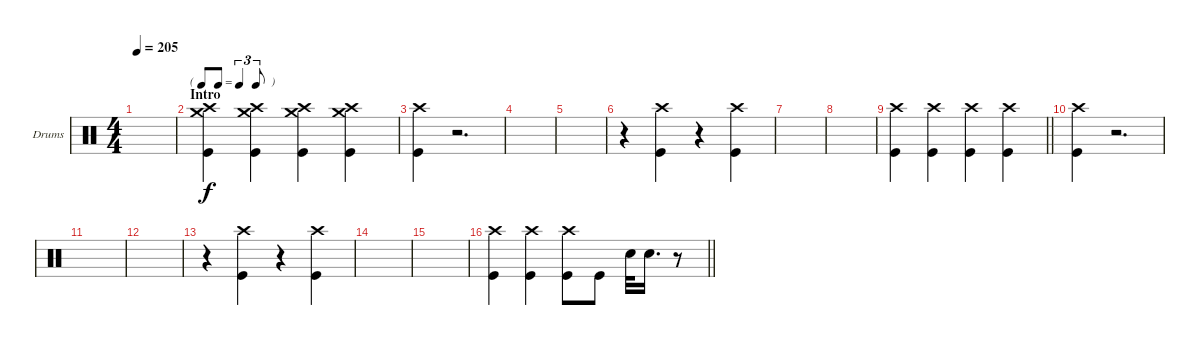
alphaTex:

\bracketExtendMode groupsimilarinstruments
\firstSystemTrackNameOrientation horizontal
\otherSystemsTrackNameOrientation horizontal
\track ("Drums" "Drums") {instrument percussion}
\staff {score}
\articulation defaults
\ts (4 4)
\beaming (8 2 2 2 2)
\tempo 205
\clef neutral
\ks c
|
\tf triplet8th
\section ("" "Intro")
("Crash medium (hit)" "Crash high (hit)" "Kick (hit)").4 ("Crash medium (hit)" "Crash high (hit)" "Kick (hit)").4 ("Crash medium (hit)" "Crash high (hit)" "Kick (hit)").4 ("Crash medium (hit)" "Crash high (hit)" "Kick (hit)").4 |
("Kick (hit)" "Crash high (hit)").4 r.2{d} |
|
|
r.4 ("Kick (hit)" "Crash high (hit)").4 r.4 ("Kick (hit)" "Crash high (hit)").4 |
|
|
\barLineRight lightlight
("Kick (hit)" "Crash high (hit)").4 ("Kick (hit)" "Crash high (hit)").4 ("Kick (hit)" "Crash high (hit)").4 ("Kick (hit)" "Crash high (hit)").4 |
("Kick (hit)" "Crash high (hit)").4 r.2{d} |
|
|
r.4 ("Kick (hit)" "Crash high (hit)").4 r.4 ("Kick (hit)" "Crash high (hit)").4 |
|
|
\barLineRight lightlight
("Kick (hit)" "Crash high (hit)").4 ("Kick (hit)" "Crash high (hit)").4 ("Kick (hit)" "Crash high (hit)").8 "Kick (hit)".8 "Snare (hit) 2".32 "Snare (hit) 2".16{d} r.8
